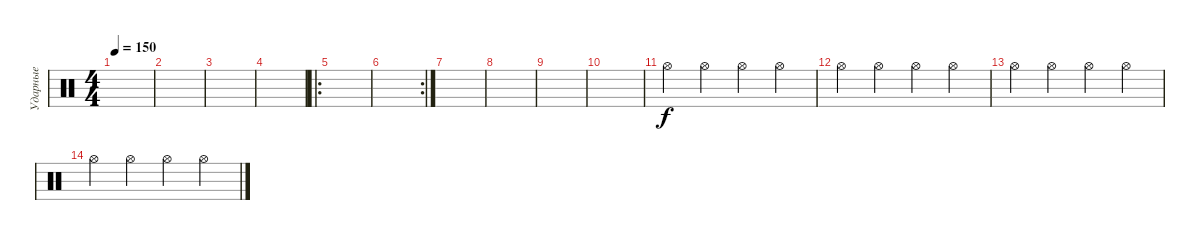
\track ("Ударные" "Ударные") {instrument percussion}
\staff {score}
\articulation defaults
\ts (4 4)
\tempo 150
\clef neutral
\ks c
|
|
|
|
\ro
|
\rc 2
|
|
|
|
|
"Hi-Hat (open)".4{dy f} "Hi-Hat (open)".4 "Hi-Hat (open)".4 "Hi-Hat (open)".4 |
"Hi-Hat (open)".4 "Hi-Hat (open)".4 "Hi-Hat (open)".4 "Hi-Hat (open)".4 |
"Hi-Hat (open)".4 "Hi-Hat (open)".4 "Hi-Hat (open)".4 "Hi-Hat (open)".4 |
"Hi-Hat (open)".4 "Hi-Hat (open)".4 "Hi-Hat (open)".4 "Hi-Hat (open)".4
